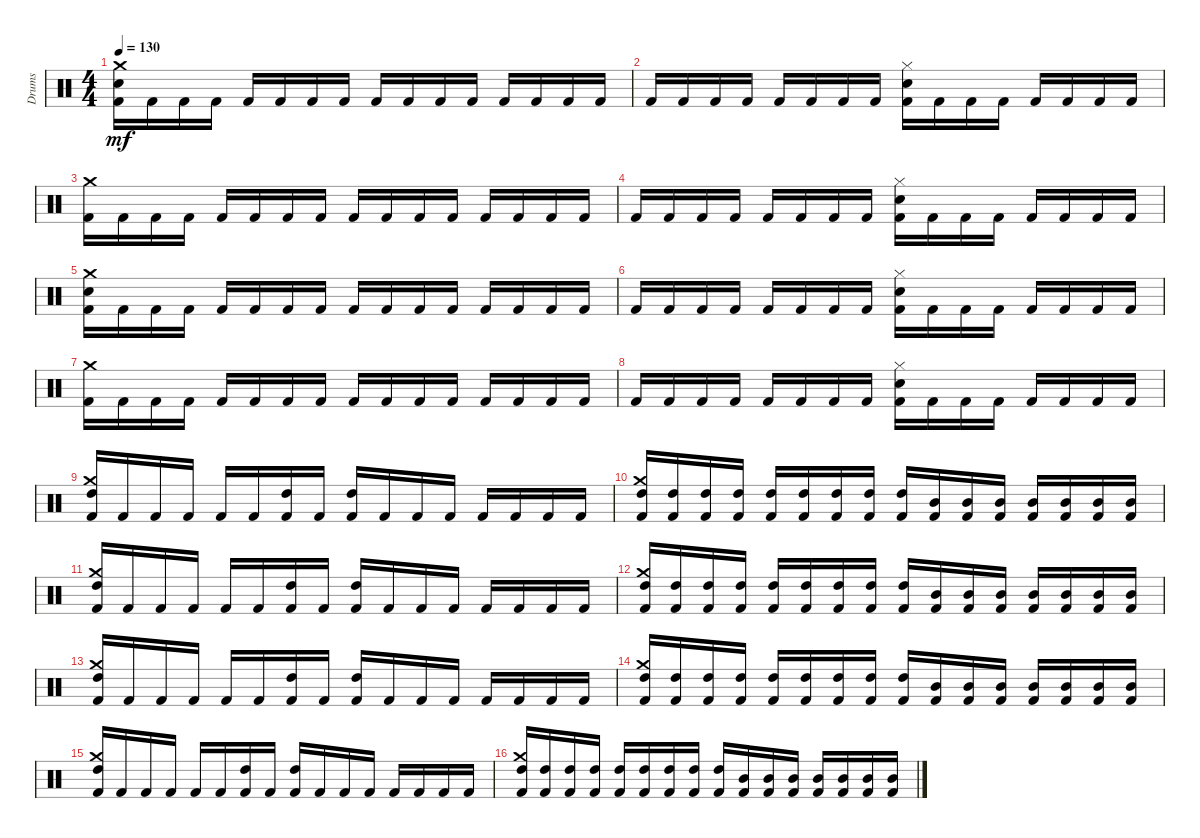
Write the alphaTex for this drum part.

\track ("Drums" "Drums") {instrument percussion}
\staff {score}
\articulation defaults
\ts (4 4)
\tempo 130
\clef neutral
\ks c
("Kick (hit) 2" "Snare (hit) 2" "Crash medium (hit)").16{dy mf} "Kick (hit) 2".16 "Kick (hit) 2".16 "Kick (hit) 2".16 "Kick (hit) 2".16 "Kick (hit) 2".16 "Kick (hit) 2".16 "Kick (hit) 2".16 "Kick (hit) 2".16 "Kick (hit) 2".16 "Kick (hit) 2".16 "Kick (hit) 2".16 "Kick (hit) 2".16 "Kick (hit) 2".16 "Kick (hit) 2".16 "Kick (hit) 2".16 |
"Kick (hit) 2".16 "Kick (hit) 2".16 "Kick (hit) 2".16 "Kick (hit) 2".16 "Kick (hit) 2".16 "Kick (hit) 2".16 "Kick (hit) 2".16 "Kick (hit) 2".16 ("Kick (hit) 2" "Snare (hit) 2" "Hi-Hat (closed)").16 "Kick (hit) 2".16 "Kick (hit) 2".16 "Kick (hit) 2".16 "Kick (hit) 2".16 "Kick (hit) 2".16 "Kick (hit) 2".16 "Kick (hit) 2".16 |
("Kick (hit) 2" "Crash medium (hit)").16 "Kick (hit) 2".16 "Kick (hit) 2".16 "Kick (hit) 2".16 "Kick (hit) 2".16 "Kick (hit) 2".16 "Kick (hit) 2".16 "Kick (hit) 2".16 "Kick (hit) 2".16 "Kick (hit) 2".16 "Kick (hit) 2".16 "Kick (hit) 2".16 "Kick (hit) 2".16 "Kick (hit) 2".16 "Kick (hit) 2".16 "Kick (hit) 2".16 |
"Kick (hit) 2".16 "Kick (hit) 2".16 "Kick (hit) 2".16 "Kick (hit) 2".16 "Kick (hit) 2".16 "Kick (hit) 2".16 "Kick (hit) 2".16 "Kick (hit) 2".16 ("Kick (hit) 2" "Snare (hit) 2" "Hi-Hat (closed)").16 "Kick (hit) 2".16 "Kick (hit) 2".16 "Kick (hit) 2".16 "Kick (hit) 2".16 "Kick (hit) 2".16 "Kick (hit) 2".16 "Kick (hit) 2".16 |
("Kick (hit) 2" "Snare (hit) 2" "Crash medium (hit)").16 "Kick (hit) 2".16 "Kick (hit) 2".16 "Kick (hit) 2".16 "Kick (hit) 2".16 "Kick (hit) 2".16 "Kick (hit) 2".16 "Kick (hit) 2".16 "Kick (hit) 2".16 "Kick (hit) 2".16 "Kick (hit) 2".16 "Kick (hit) 2".16 "Kick (hit) 2".16 "Kick (hit) 2".16 "Kick (hit) 2".16 "Kick (hit) 2".16 |
"Kick (hit) 2".16 "Kick (hit) 2".16 "Kick (hit) 2".16 "Kick (hit) 2".16 "Kick (hit) 2".16 "Kick (hit) 2".16 "Kick (hit) 2".16 "Kick (hit) 2".16 ("Kick (hit) 2" "Snare (hit) 2" "Hi-Hat (closed)").16 "Kick (hit) 2".16 "Kick (hit) 2".16 "Kick (hit) 2".16 "Kick (hit) 2".16 "Kick (hit) 2".16 "Kick (hit) 2".16 "Kick (hit) 2".16 |
("Kick (hit) 2" "Crash medium (hit)").16 "Kick (hit) 2".16 "Kick (hit) 2".16 "Kick (hit) 2".16 "Kick (hit) 2".16 "Kick (hit) 2".16 "Kick (hit) 2".16 "Kick (hit) 2".16 "Kick (hit) 2".16 "Kick (hit) 2".16 "Kick (hit) 2".16 "Kick (hit) 2".16 "Kick (hit) 2".16 "Kick (hit) 2".16 "Kick (hit) 2".16 "Kick (hit) 2".16 |
"Kick (hit) 2".16 "Kick (hit) 2".16 "Kick (hit) 2".16 "Kick (hit) 2".16 "Kick (hit) 2".16 "Kick (hit) 2".16 "Kick (hit) 2".16 "Kick (hit) 2".16 ("Kick (hit) 2" "Snare (hit) 2" "Hi-Hat (closed)").16 "Kick (hit) 2".16 "Kick (hit) 2".16 "Kick (hit) 2".16 "Kick (hit) 2".16 "Kick (hit) 2".16 "Kick (hit) 2".16 "Kick (hit) 2".16 |
("Kick (hit) 2" "High Tom (hit)" "Crash medium (hit)").16 "Kick (hit) 2".16 "Kick (hit) 2".16 "Kick (hit) 2".16 "Kick (hit) 2".16 "Kick (hit) 2".16 ("Kick (hit) 2" "High Tom (hit)").16 "Kick (hit) 2".16 ("Kick (hit) 2" "High Tom (hit)").16 "Kick (hit) 2".16 "Kick (hit) 2".16 "Kick (hit) 2".16 "Kick (hit) 2".16 "Kick (hit) 2".16 "Kick (hit) 2".16 "Kick (hit) 2".16 |
("Kick (hit) 2" "High Tom (hit)" "Crash medium (hit)").16 ("Kick (hit) 2" "High Tom (hit)").16 ("Kick (hit) 2" "High Tom (hit)").16 ("Kick (hit) 2" "High Tom (hit)").16 ("Kick (hit) 2" "High Tom (hit)").16 ("Kick (hit) 2" "High Tom (hit)").16 ("Kick (hit) 2" "High Tom (hit)").16 ("Kick (hit) 2" "High Tom (hit)").16 ("Kick (hit) 2" "High Tom (hit)").16 ("Kick (hit) 2" "Mid Tom (hit)").16 ("Kick (hit) 2" "Mid Tom (hit)").16 ("Kick (hit) 2" "Mid Tom (hit)").16 ("Kick (hit) 2" "Mid Tom (hit)").16 ("Kick (hit) 2" "Mid Tom (hit)").16 ("Kick (hit) 2" "Mid Tom (hit)").16 ("Kick (hit) 2" "Mid Tom (hit)").16 |
("Kick (hit) 2" "High Tom (hit)" "Crash medium (hit)").16 "Kick (hit) 2".16 "Kick (hit) 2".16 "Kick (hit) 2".16 "Kick (hit) 2".16 "Kick (hit) 2".16 ("Kick (hit) 2" "High Tom (hit)").16 "Kick (hit) 2".16 ("Kick (hit) 2" "High Tom (hit)").16 "Kick (hit) 2".16 "Kick (hit) 2".16 "Kick (hit) 2".16 "Kick (hit) 2".16 "Kick (hit) 2".16 "Kick (hit) 2".16 "Kick (hit) 2".16 |
("Kick (hit) 2" "High Tom (hit)" "Crash medium (hit)").16 ("Kick (hit) 2" "High Tom (hit)").16 ("Kick (hit) 2" "High Tom (hit)").16 ("Kick (hit) 2" "High Tom (hit)").16 ("Kick (hit) 2" "High Tom (hit)").16 ("Kick (hit) 2" "High Tom (hit)").16 ("Kick (hit) 2" "High Tom (hit)").16 ("Kick (hit) 2" "High Tom (hit)").16 ("Kick (hit) 2" "High Tom (hit)").16 ("Kick (hit) 2" "Mid Tom (hit)").16 ("Kick (hit) 2" "Mid Tom (hit)").16 ("Kick (hit) 2" "Mid Tom (hit)").16 ("Kick (hit) 2" "Mid Tom (hit)").16 ("Kick (hit) 2" "Mid Tom (hit)").16 ("Kick (hit) 2" "Mid Tom (hit)").16 ("Kick (hit) 2" "Mid Tom (hit)").16 |
("Kick (hit) 2" "High Tom (hit)" "Crash medium (hit)").16 "Kick (hit) 2".16 "Kick (hit) 2".16 "Kick (hit) 2".16 "Kick (hit) 2".16 "Kick (hit) 2".16 ("Kick (hit) 2" "High Tom (hit)").16 "Kick (hit) 2".16 ("Kick (hit) 2" "High Tom (hit)").16 "Kick (hit) 2".16 "Kick (hit) 2".16 "Kick (hit) 2".16 "Kick (hit) 2".16 "Kick (hit) 2".16 "Kick (hit) 2".16 "Kick (hit) 2".16 |
("Kick (hit) 2" "High Tom (hit)" "Crash medium (hit)").16 ("Kick (hit) 2" "High Tom (hit)").16 ("Kick (hit) 2" "High Tom (hit)").16 ("Kick (hit) 2" "High Tom (hit)").16 ("Kick (hit) 2" "High Tom (hit)").16 ("Kick (hit) 2" "High Tom (hit)").16 ("Kick (hit) 2" "High Tom (hit)").16 ("Kick (hit) 2" "High Tom (hit)").16 ("Kick (hit) 2" "High Tom (hit)").16 ("Kick (hit) 2" "Mid Tom (hit)").16 ("Kick (hit) 2" "Mid Tom (hit)").16 ("Kick (hit) 2" "Mid Tom (hit)").16 ("Kick (hit) 2" "Mid Tom (hit)").16 ("Kick (hit) 2" "Mid Tom (hit)").16 ("Kick (hit) 2" "Mid Tom (hit)").16 ("Kick (hit) 2" "Mid Tom (hit)").16 |
("Kick (hit) 2" "High Tom (hit)" "Crash medium (hit)").16 "Kick (hit) 2".16 "Kick (hit) 2".16 "Kick (hit) 2".16 "Kick (hit) 2".16 "Kick (hit) 2".16 ("Kick (hit) 2" "High Tom (hit)").16 "Kick (hit) 2".16 ("Kick (hit) 2" "High Tom (hit)").16 "Kick (hit) 2".16 "Kick (hit) 2".16 "Kick (hit) 2".16 "Kick (hit) 2".16 "Kick (hit) 2".16 "Kick (hit) 2".16 "Kick (hit) 2".16 |
("Kick (hit) 2" "High Tom (hit)" "Crash medium (hit)").16 ("Kick (hit) 2" "High Tom (hit)").16 ("Kick (hit) 2" "High Tom (hit)").16 ("Kick (hit) 2" "High Tom (hit)").16 ("Kick (hit) 2" "High Tom (hit)").16 ("Kick (hit) 2" "High Tom (hit)").16 ("Kick (hit) 2" "High Tom (hit)").16 ("Kick (hit) 2" "High Tom (hit)").16 ("Kick (hit) 2" "High Tom (hit)").16 ("Kick (hit) 2" "Mid Tom (hit)").16 ("Kick (hit) 2" "Mid Tom (hit)").16 ("Kick (hit) 2" "Mid Tom (hit)").16 ("Kick (hit) 2" "Mid Tom (hit)").16 ("Kick (hit) 2" "Mid Tom (hit)").16 ("Kick (hit) 2" "Mid Tom (hit)").16 ("Kick (hit) 2" "Mid Tom (hit)").16
